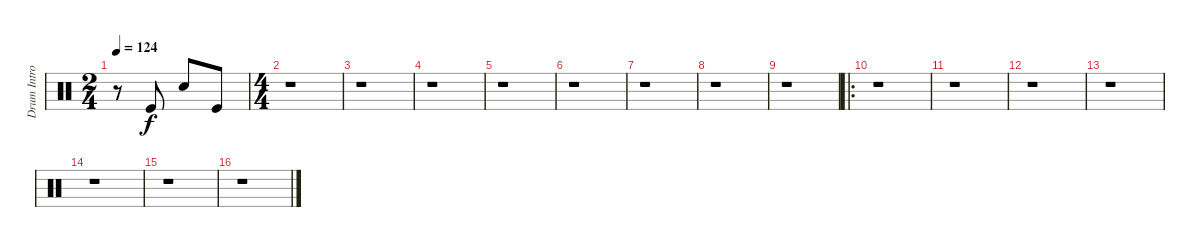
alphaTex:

\track ("Drum Intro" "Drum Intro") {instrument percussion}
\staff {score}
\articulation defaults
\ts (2 4)
\tempo 124
\clef neutral
\ks c
r.8{dy f} "Kick (hit)".8 "Snare (hit) 2".8 "Kick (hit)".8 |
\ts (4 4)
r.1 |
r.1 |
r.1 |
r.1 |
r.1 |
r.1 |
r.1 |
r.1 |
\ro
r.1 |
r.1 |
r.1 |
r.1 |
r.1 |
r.1 |
r.1
